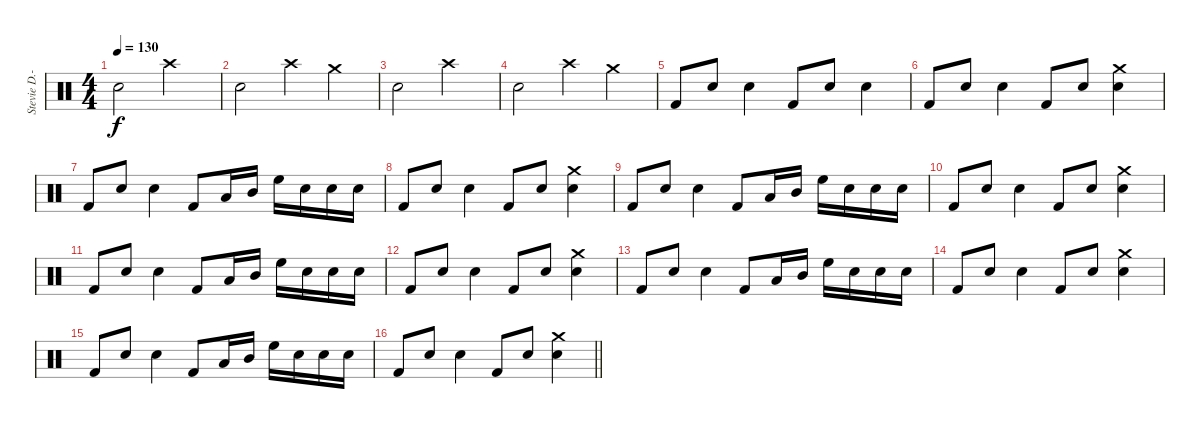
\track ("Stevie D.-Drums" "Stevie D.-") {instrument percussion}
\staff {score}
\articulation defaults
\ts (4 4)
\tempo 130
\clef neutral
\ks c "Snare (hit) 2".2{dy f} "Crash high (hit)".2
|
"Snare (hit) 2".2 "Crash high (hit)".4 "Crash medium (hit)".4 |
"Snare (hit) 2".2 "Crash high (hit)".2 |
"Snare (hit) 2".2 "Crash high (hit)".4 "Crash medium (hit)".4 |
"Kick (hit) 2".8 "Snare (hit) 2".8 "Electric Snare (hit)".4 "Kick (hit) 2".8 "Snare (hit) 2".8 "Electric Snare (hit)".4 |
"Kick (hit) 2".8 "Snare (hit) 2".8 "Electric Snare (hit)".4 "Kick (hit) 2".8 "Snare (hit) 2".8 ("Electric Snare (hit)" "Crash medium (hit)").4 |
"Kick (hit) 2".8 "Snare (hit) 2".8 "Electric Snare (hit)".4 "Kick (hit) 2".8 "Low Tom (hit)".16 "Mid Tom (hit)".16 "High Floor Tom (hit)".16 "Electric Snare (hit)".16 "Electric Snare (hit)".16 "Electric Snare (hit)".16 |
"Kick (hit) 2".8 "Snare (hit) 2".8 "Electric Snare (hit)".4 "Kick (hit) 2".8 "Snare (hit) 2".8 ("Electric Snare (hit)" "Crash medium (hit)").4 |
"Kick (hit) 2".8 "Snare (hit) 2".8 "Electric Snare (hit)".4 "Kick (hit) 2".8 "Low Tom (hit)".16 "Mid Tom (hit)".16 "High Floor Tom (hit)".16 "Electric Snare (hit)".16 "Electric Snare (hit)".16 "Electric Snare (hit)".16 |
"Kick (hit) 2".8 "Snare (hit) 2".8 "Electric Snare (hit)".4 "Kick (hit) 2".8 "Snare (hit) 2".8 ("Electric Snare (hit)" "Crash medium (hit)").4 |
"Kick (hit) 2".8 "Snare (hit) 2".8 "Electric Snare (hit)".4 "Kick (hit) 2".8 "Low Tom (hit)".16 "Mid Tom (hit)".16 "High Floor Tom (hit)".16 "Electric Snare (hit)".16 "Electric Snare (hit)".16 "Electric Snare (hit)".16 |
"Kick (hit) 2".8 "Snare (hit) 2".8 "Electric Snare (hit)".4 "Kick (hit) 2".8 "Snare (hit) 2".8 ("Electric Snare (hit)" "Crash medium (hit)").4 |
"Kick (hit) 2".8 "Snare (hit) 2".8 "Electric Snare (hit)".4 "Kick (hit) 2".8 "Low Tom (hit)".16 "Mid Tom (hit)".16 "High Floor Tom (hit)".16 "Electric Snare (hit)".16 "Electric Snare (hit)".16 "Electric Snare (hit)".16 |
"Kick (hit) 2".8 "Snare (hit) 2".8 "Electric Snare (hit)".4 "Kick (hit) 2".8 "Snare (hit) 2".8 ("Electric Snare (hit)" "Crash medium (hit)").4 |
"Kick (hit) 2".8 "Snare (hit) 2".8 "Electric Snare (hit)".4 "Kick (hit) 2".8 "Low Tom (hit)".16 "Mid Tom (hit)".16 "High Floor Tom (hit)".16 "Electric Snare (hit)".16 "Electric Snare (hit)".16 "Electric Snare (hit)".16 |
\barLineRight lightlight "Kick (hit) 2".8 "Snare (hit) 2".8 "Electric Snare (hit)".4 "Kick (hit) 2".8 "Snare (hit) 2".8
("Electric Snare (hit)" "Crash medium (hit)").4
